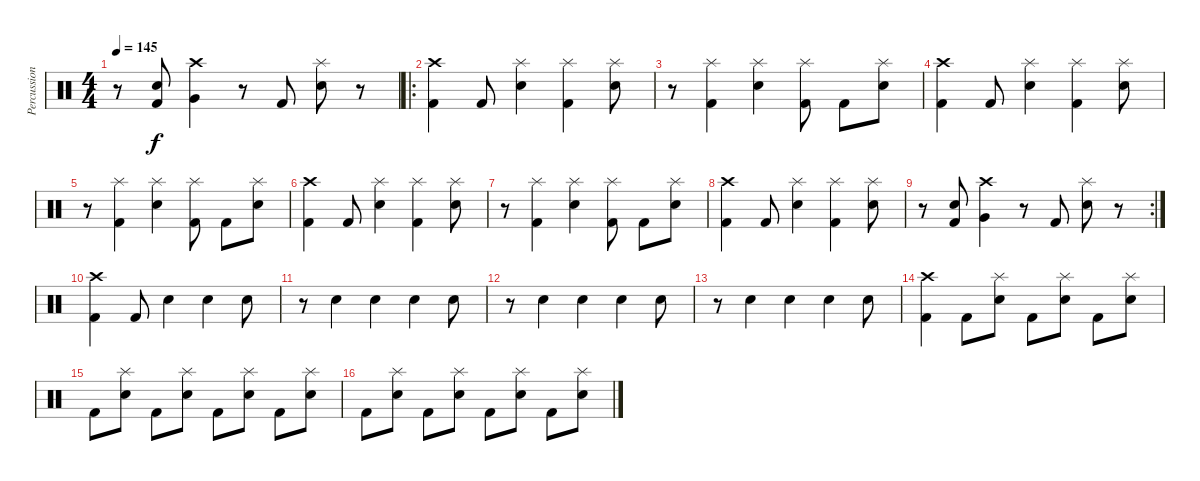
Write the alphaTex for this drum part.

\track ("Percussion" "Percussion") {instrument percussion}
\staff {score}
\articulation defaults
\ts (4 4)
\tempo 145
\clef neutral
\ks c
r.8{dy f} ("Electric Snare (hit)" "Kick (hit) 2").8 ("Crash high (hit)" "Very Low Tom (hit)").4 r.8 "Kick (hit) 2".8 ("Splash (hit)" "Electric Snare (hit)").8 r.8 |
\ro
("Crash high (hit)" "Kick (hit) 2").4 "Kick (hit) 2".8 ("Splash (hit)" "Electric Snare (hit)").4 ("Splash (hit)" "Kick (hit) 2").4 ("Splash (hit)" "Electric Snare (hit)").8 |
r.8 ("Splash (hit)" "Kick (hit) 2").4 ("Splash (hit)" "Electric Snare (hit)").4 ("Splash (hit)" "Kick (hit) 2").8 "Kick (hit) 2".8 ("Splash (hit)" "Electric Snare (hit)").8 |
("Crash high (hit)" "Kick (hit) 2").4 "Kick (hit) 2".8 ("Splash (hit)" "Electric Snare (hit)").4 ("Splash (hit)" "Kick (hit) 2").4 ("Splash (hit)" "Electric Snare (hit)").8 |
r.8 ("Splash (hit)" "Kick (hit) 2").4 ("Splash (hit)" "Electric Snare (hit)").4 ("Splash (hit)" "Kick (hit) 2").8 "Kick (hit) 2".8 ("Splash (hit)" "Electric Snare (hit)").8 |
("Crash high (hit)" "Kick (hit) 2").4 "Kick (hit) 2".8 ("Splash (hit)" "Electric Snare (hit)").4 ("Splash (hit)" "Kick (hit) 2").4 ("Splash (hit)" "Electric Snare (hit)").8 |
r.8 ("Splash (hit)" "Kick (hit) 2").4 ("Splash (hit)" "Electric Snare (hit)").4 ("Splash (hit)" "Kick (hit) 2").8 "Kick (hit) 2".8 ("Splash (hit)" "Electric Snare (hit)").8 |
("Crash high (hit)" "Kick (hit) 2").4 "Kick (hit) 2".8 ("Splash (hit)" "Electric Snare (hit)").4 ("Splash (hit)" "Kick (hit) 2").4 ("Splash (hit)" "Electric Snare (hit)").8 |
\rc 2
r.8 ("Electric Snare (hit)" "Kick (hit) 2").8 ("Crash high (hit)" "Very Low Tom (hit)").4 r.8 "Kick (hit) 2".8 ("Splash (hit)" "Electric Snare (hit)").8 r.8 |
("Crash high (hit)" "Kick (hit) 2").4 "Kick (hit) 2".8 "Electric Snare (hit)".4 "Electric Snare (hit)".4 "Electric Snare (hit)".8 |
r.8 "Electric Snare (hit)".4 "Electric Snare (hit)".4 "Electric Snare (hit)".4 "Electric Snare (hit)".8 |
r.8 "Electric Snare (hit)".4 "Electric Snare (hit)".4 "Electric Snare (hit)".4 "Electric Snare (hit)".8 |
r.8 "Electric Snare (hit)".4 "Electric Snare (hit)".4 "Electric Snare (hit)".4 "Electric Snare (hit)".8 |
("Crash high (hit)" "Kick (hit) 2").4 "Kick (hit) 2".8 ("Splash (hit)" "Electric Snare (hit)").8 "Kick (hit) 2".8 ("Splash (hit)" "Electric Snare (hit)").8 "Kick (hit) 2".8 ("Splash (hit)" "Electric Snare (hit)").8 |
"Kick (hit) 2".8 ("Splash (hit)" "Electric Snare (hit)").8 "Kick (hit) 2".8 ("Splash (hit)" "Electric Snare (hit)").8 "Kick (hit) 2".8 ("Splash (hit)" "Electric Snare (hit)").8 "Kick (hit) 2".8 ("Splash (hit)" "Electric Snare (hit)").8 |
"Kick (hit) 2".8 ("Splash (hit)" "Electric Snare (hit)").8 "Kick (hit) 2".8 ("Splash (hit)" "Electric Snare (hit)").8 "Kick (hit) 2".8 ("Splash (hit)" "Electric Snare (hit)").8 "Kick (hit) 2".8 ("Splash (hit)" "Electric Snare (hit)").8
